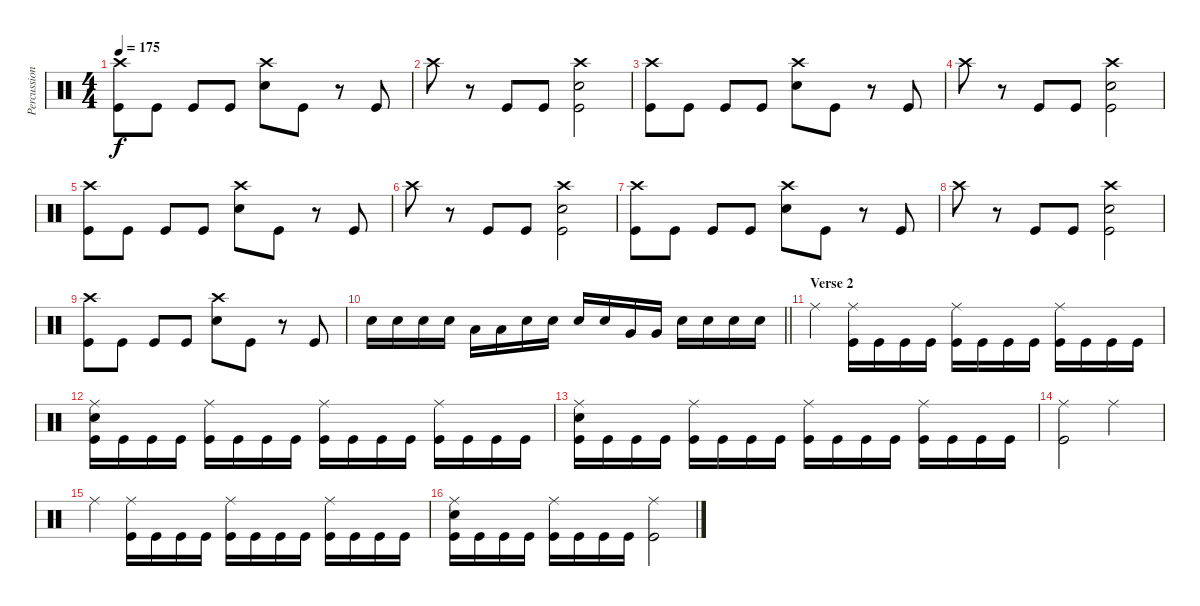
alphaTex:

\track ("Percussion" "Percussion") {instrument percussion}
\staff {score}
\articulation defaults
\ts (4 4)
\tempo 175
\clef neutral
\ks c
("Crash high (hit)" "Kick (hit)").8{dy f} "Kick (hit)".8 "Kick (hit)".8 "Kick (hit)".8 ("Crash high (hit)" "Electric Snare (hit)").8 "Kick (hit)".8 r.8 "Kick (hit)".8 |
"Crash high (hit)".8 r.8 "Kick (hit)".8 "Kick (hit)".8 ("Crash high (hit)" "Electric Snare (hit)" "Kick (hit)").2 |
("Crash high (hit)" "Kick (hit)").8 "Kick (hit)".8 "Kick (hit)".8 "Kick (hit)".8 ("Crash high (hit)" "Electric Snare (hit)").8 "Kick (hit)".8 r.8 "Kick (hit)".8 |
"Crash high (hit)".8 r.8 "Kick (hit)".8 "Kick (hit)".8 ("Crash high (hit)" "Electric Snare (hit)" "Kick (hit)").2 |
("Crash high (hit)" "Kick (hit)").8 "Kick (hit)".8 "Kick (hit)".8 "Kick (hit)".8 ("Crash high (hit)" "Electric Snare (hit)").8 "Kick (hit)".8 r.8 "Kick (hit)".8 |
"Crash high (hit)".8 r.8 "Kick (hit)".8 "Kick (hit)".8 ("Crash high (hit)" "Electric Snare (hit)" "Kick (hit)").2 |
("Crash high (hit)" "Kick (hit)").8 "Kick (hit)".8 "Kick (hit)".8 "Kick (hit)".8 ("Crash high (hit)" "Electric Snare (hit)").8 "Kick (hit)".8 r.8 "Kick (hit)".8 |
"Crash high (hit)".8 r.8 "Kick (hit)".8 "Kick (hit)".8 ("Crash high (hit)" "Electric Snare (hit)" "Kick (hit)").2 |
("Crash high (hit)" "Kick (hit)").8 "Kick (hit)".8 "Kick (hit)".8 "Kick (hit)".8 ("Crash high (hit)" "Electric Snare (hit)").8 "Kick (hit)".8 r.8 "Kick (hit)".8 |
\barLineRight lightlight "Electric Snare (hit)".16 "Electric Snare (hit)".16 "Electric Snare (hit)".16 "Electric Snare (hit)".16 "Low Tom (hit)".16 "Low Tom (hit)".16 "Electric Snare (hit)".16 "Electric Snare (hit)".16 "Electric Snare (hit)".16 "Electric Snare (hit)".16 "Very Low Tom (hit)".16 "Very Low Tom (hit)".16 "Electric Snare (hit)".16 "Electric Snare (hit)".16 "Electric Snare (hit)".16 "Electric Snare (hit)".16
|
\section ("" "Verse 2")
"Ride (middle)".4 ("Ride (middle)" "Kick (hit)").16 "Kick (hit)".16 "Kick (hit)".16 "Kick (hit)".16 ("Ride (middle)" "Kick (hit)").16 "Kick (hit)".16 "Kick (hit)".16 "Kick (hit)".16 ("Ride (middle)" "Kick (hit)").16 "Kick (hit)".16 "Kick (hit)".16 "Kick (hit)".16 |
("Ride (middle)" "Electric Snare (hit)" "Kick (hit)").16 "Kick (hit)".16 "Kick (hit)".16 "Kick (hit)".16 ("Ride (middle)" "Kick (hit)").16 "Kick (hit)".16 "Kick (hit)".16 "Kick (hit)".16 ("Ride (middle)" "Kick (hit)").16 "Kick (hit)".16 "Kick (hit)".16 "Kick (hit)".16 ("Ride (middle)" "Kick (hit)").16 "Kick (hit)".16 "Kick (hit)".16 "Kick (hit)".16 |
("Ride (middle)" "Electric Snare (hit)" "Kick (hit)").16 "Kick (hit)".16 "Kick (hit)".16 "Kick (hit)".16 ("Ride (middle)" "Kick (hit)").16 "Kick (hit)".16 "Kick (hit)".16 "Kick (hit)".16 ("Ride (middle)" "Kick (hit)").16 "Kick (hit)".16 "Kick (hit)".16 "Kick (hit)".16 ("Ride (middle)" "Kick (hit)").16 "Kick (hit)".16 "Kick (hit)".16 "Kick (hit)".16 |
("Ride (middle)" "Kick (hit)").2 "Ride (middle)".2 |
"Ride (middle)".4 ("Ride (middle)" "Kick (hit)").16 "Kick (hit)".16 "Kick (hit)".16 "Kick (hit)".16 ("Ride (middle)" "Kick (hit)").16 "Kick (hit)".16 "Kick (hit)".16 "Kick (hit)".16 ("Ride (middle)" "Kick (hit)").16 "Kick (hit)".16 "Kick (hit)".16 "Kick (hit)".16 |
("Ride (middle)" "Electric Snare (hit)" "Kick (hit)").16 "Kick (hit)".16 "Kick (hit)".16 "Kick (hit)".16 ("Ride (middle)" "Kick (hit)").16 "Kick (hit)".16 "Kick (hit)".16 "Kick (hit)".16 ("Ride (middle)" "Kick (hit)").2
